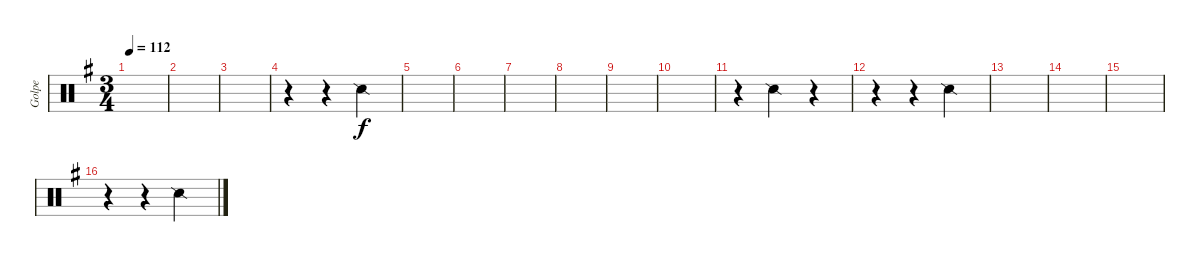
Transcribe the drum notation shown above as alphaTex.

\track ("Golpe" "Golpe") {instrument percussion}
\staff {score}
\articulation defaults
\ts (3 4)
\tempo 112
\clef neutral
\ks g
|
|
|
r.4 r.4 "Snare (side stick) 2".4 |
|
|
|
|
|
|
r.4 "Snare (side stick) 2".4 r.4 |
r.4 r.4 "Snare (side stick) 2".4 |
|
|
|
r.4 r.4 "Snare (side stick) 2".4
